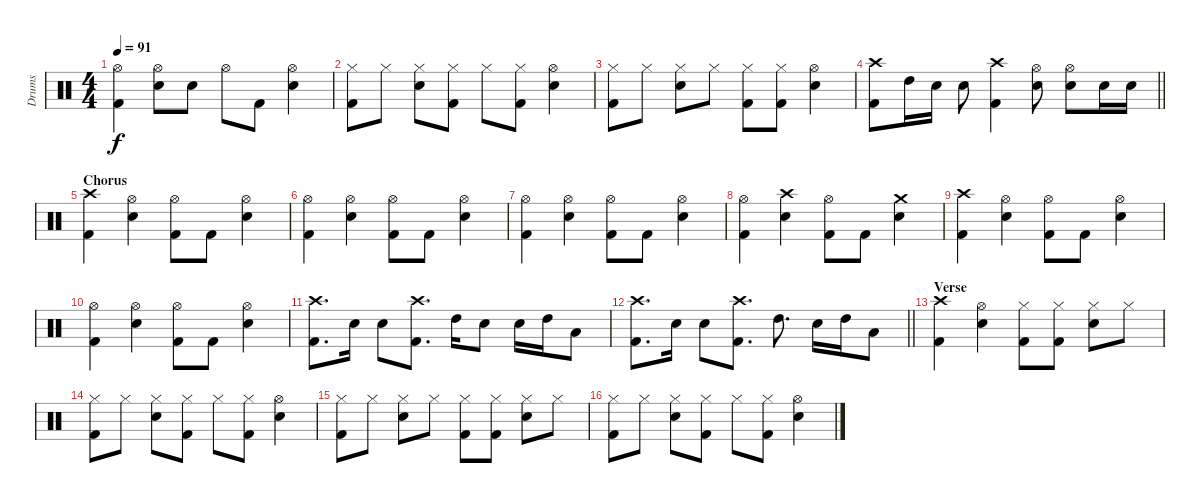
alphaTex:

\track ("Drums" "Drums") {instrument percussion}
\staff {score}
\articulation defaults
\ts (4 4)
\tempo 91
\clef neutral
\ks c
("Hi-Hat (open)" "Kick (hit) 2").4{dy f} ("Hi-Hat (open)" "Snare (hit) 2").8 "Snare (hit) 2".8 "Hi-Hat (open)".8 "Kick (hit) 2".8 ("Hi-Hat (open)" "Snare (hit) 2").4 |
("Hi-Hat (closed)" "Kick (hit) 2").8 "Hi-Hat (closed)".8 ("Hi-Hat (closed)" "Snare (hit) 2").8 ("Hi-Hat (closed)" "Kick (hit) 2").8 "Hi-Hat (closed)".8 ("Hi-Hat (closed)" "Kick (hit) 2").8 ("Hi-Hat (open)" "Snare (hit) 2").4 |
("Hi-Hat (closed)" "Kick (hit) 2").8 "Hi-Hat (closed)".8 ("Hi-Hat (closed)" "Snare (hit) 2").8 "Hi-Hat (closed)".8 ("Hi-Hat (closed)" "Kick (hit) 2").8 ("Hi-Hat (closed)" "Kick (hit) 2").8 ("Hi-Hat (open)" "Snare (hit) 2").4 |
\barLineRight lightlight
("Crash high (hit)" "Kick (hit) 2").8 "High Tom (hit)".16 "Snare (hit) 2".16 "Snare (hit) 2".8 ("Crash high (hit)" "Kick (hit) 2").4 ("Hi-Hat (open)" "Snare (hit) 2").8 ("Hi-Hat (open)" "Snare (hit) 2").8 "Snare (hit) 2".16 "Snare (hit) 2".16 |
\section ("" "Chorus")
("Crash high (hit)" "Kick (hit) 2").4 ("Hi-Hat (open)" "Snare (hit) 2").4 ("Hi-Hat (open)" "Kick (hit) 2").8 "Kick (hit) 2".8 ("Hi-Hat (open)" "Snare (hit) 2").4 |
("Hi-Hat (open)" "Kick (hit) 2").4 ("Hi-Hat (open)" "Snare (hit) 2").4 ("Hi-Hat (open)" "Kick (hit) 2").8 "Kick (hit) 2".8 ("Hi-Hat (open)" "Snare (hit) 2").4 |
("Hi-Hat (open)" "Kick (hit) 2").4 ("Hi-Hat (open)" "Snare (hit) 2").4 ("Hi-Hat (open)" "Kick (hit) 2").8 "Kick (hit) 2".8 ("Hi-Hat (open)" "Snare (hit) 2").4 |
("Hi-Hat (open)" "Kick (hit) 2").4 ("Crash high (hit)" "Snare (hit) 2").4 ("Hi-Hat (open)" "Kick (hit) 2").8 "Kick (hit) 2".8 ("Crash medium (hit)" "Snare (hit) 2").4 |
("Crash high (hit)" "Kick (hit) 2").4 ("Hi-Hat (open)" "Snare (hit) 2").4 ("Hi-Hat (open)" "Kick (hit) 2").8 "Kick (hit) 2".8 ("Hi-Hat (open)" "Snare (hit) 2").4 |
("Hi-Hat (open)" "Kick (hit) 2").4 ("Hi-Hat (open)" "Snare (hit) 2").4 ("Hi-Hat (open)" "Kick (hit) 2").8 "Kick (hit) 2".8 ("Hi-Hat (open)" "Snare (hit) 2").4 |
("Crash high (hit)" "Kick (hit) 2").8{d} "Snare (hit) 2".16 "Snare (hit) 2".8 ("Crash high (hit)" "Kick (hit) 2").8{d} "High Tom (hit)".16 "Snare (hit) 2".8 "Snare (hit) 2".16 "High Tom (hit)".16 "Low Tom (hit)".8 |
\barLineRight lightlight
("Crash high (hit)" "Kick (hit) 2").8{d} "Snare (hit) 2".16 "Snare (hit) 2".8 ("Crash high (hit)" "Kick (hit) 2").8{d} "High Tom (hit)".8{d} "Snare (hit) 2".16 "High Tom (hit)".16 "Low Tom (hit)".8 |
\section ("" "Verse")
("Crash high (hit)" "Kick (hit) 2").4 ("Hi-Hat (open)" "Snare (hit) 2").4 ("Hi-Hat (closed)" "Kick (hit) 2").8 ("Hi-Hat (closed)" "Kick (hit) 2").8 ("Hi-Hat (closed)" "Snare (hit) 2").8 "Hi-Hat (closed)".8 |
("Hi-Hat (closed)" "Kick (hit) 2").8 "Hi-Hat (closed)".8 ("Hi-Hat (closed)" "Snare (hit) 2").8 ("Hi-Hat (closed)" "Kick (hit) 2").8 "Hi-Hat (closed)".8 ("Hi-Hat (closed)" "Kick (hit) 2").8 ("Hi-Hat (open)" "Snare (hit) 2").4 |
("Hi-Hat (closed)" "Kick (hit) 2").8 "Hi-Hat (closed)".8 ("Hi-Hat (closed)" "Snare (hit) 2").8 "Hi-Hat (closed)".8 ("Hi-Hat (closed)" "Kick (hit) 2").8 ("Hi-Hat (closed)" "Kick (hit) 2").8 ("Hi-Hat (closed)" "Snare (hit) 2").8 "Hi-Hat (closed)".8 |
("Hi-Hat (closed)" "Kick (hit) 2").8 "Hi-Hat (closed)".8 ("Hi-Hat (closed)" "Snare (hit) 2").8 ("Hi-Hat (closed)" "Kick (hit) 2").8 "Hi-Hat (closed)".8 ("Hi-Hat (closed)" "Kick (hit) 2").8 ("Hi-Hat (open)" "Snare (hit) 2").4
